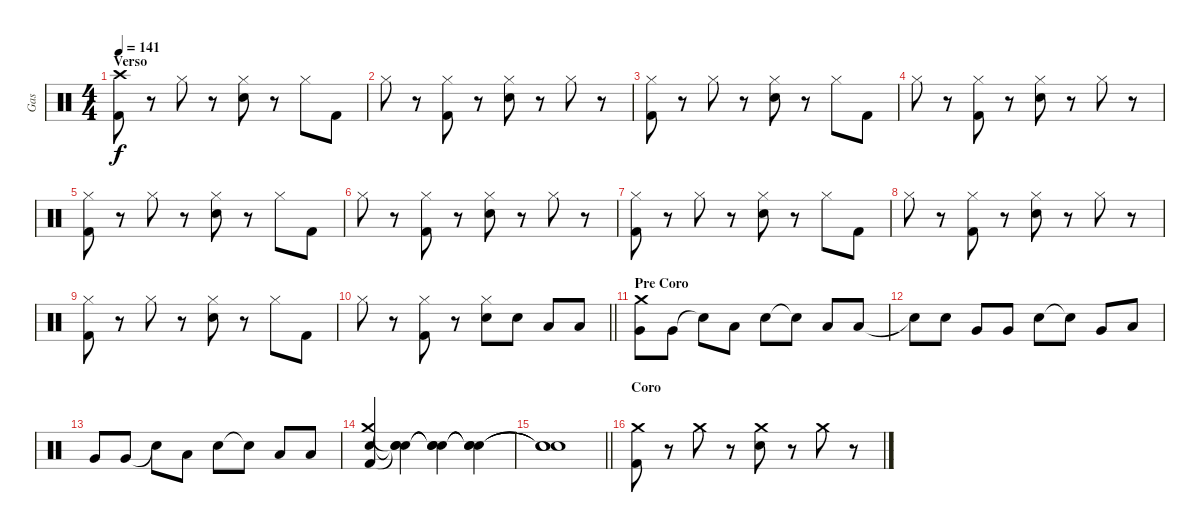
\track ("Gas" "Gas") {instrument percussion}
\staff {score}
\articulation defaults
\ts (4 4)
\section ("" "Verso")
\tempo 141
\clef neutral
\ks c
("Crash high (hit)" "Kick (hit) 2").8{dy f} r.8 "Hi-Hat (closed)".8 r.8 ("Hi-Hat (closed)" "Electric Snare (hit)").8 r.8 "Hi-Hat (closed)".8 "Kick (hit) 2".8 |
"Hi-Hat (closed)".8 r.8 ("Hi-Hat (closed)" "Kick (hit) 2").8 r.8 ("Hi-Hat (closed)" "Electric Snare (hit)").8 r.8 "Hi-Hat (closed)".8 r.8 |
("Hi-Hat (closed)" "Kick (hit) 2").8 r.8 "Hi-Hat (closed)".8 r.8 ("Hi-Hat (closed)" "Electric Snare (hit)").8 r.8 "Hi-Hat (closed)".8 "Kick (hit) 2".8 |
"Hi-Hat (closed)".8 r.8 ("Hi-Hat (closed)" "Kick (hit) 2").8 r.8 ("Hi-Hat (closed)" "Electric Snare (hit)").8 r.8 "Hi-Hat (closed)".8 r.8 |
("Hi-Hat (closed)" "Kick (hit) 2").8 r.8 "Hi-Hat (closed)".8 r.8 ("Hi-Hat (closed)" "Electric Snare (hit)").8 r.8 "Hi-Hat (closed)".8 "Kick (hit) 2".8 |
"Hi-Hat (closed)".8 r.8 ("Hi-Hat (closed)" "Kick (hit) 2").8 r.8 ("Hi-Hat (closed)" "Electric Snare (hit)").8 r.8 "Hi-Hat (closed)".8 r.8 |
("Hi-Hat (closed)" "Kick (hit) 2").8 r.8 "Hi-Hat (closed)".8 r.8 ("Hi-Hat (closed)" "Electric Snare (hit)").8 r.8 "Hi-Hat (closed)".8 "Kick (hit) 2".8 |
"Hi-Hat (closed)".8 r.8 ("Hi-Hat (closed)" "Kick (hit) 2").8 r.8 ("Hi-Hat (closed)" "Electric Snare (hit)").8 r.8 "Hi-Hat (closed)".8 r.8 |
("Hi-Hat (closed)" "Kick (hit) 2").8 r.8 "Hi-Hat (closed)".8 r.8 ("Hi-Hat (closed)" "Electric Snare (hit)").8 r.8 "Hi-Hat (closed)".8 "Kick (hit) 2".8 |
\barLineRight lightlight "Hi-Hat (closed)".8
r.8 ("Hi-Hat (closed)" "Kick (hit) 2").8 r.8 ("Hi-Hat (closed)" "Electric Snare (hit)").8 "Electric Snare (hit)".8 "Low Tom (hit)".8 "Low Tom (hit)".8 |
\section ("" "Pre Coro")
("Crash medium (hit)" "Very Low Tom (hit)").8 "Very Low Tom (hit)".8 "Snare (hit)"{t}.8 "Low Tom (hit)".8 "Electric Snare (hit)".8 "Snare (hit)"{t}.8 "Low Tom (hit)".8 "Low Tom (hit)".8 |
"Snare (hit)"{t}.8 "Electric Snare (hit)".8 "Very Low Tom (hit)".8 "Very Low Tom (hit)".8 "Electric Snare (hit)".8 "Snare (hit)"{t}.8 "Very Low Tom (hit)".8 "Low Tom (hit)".8 |
"Very Low Tom (hit)".8 "Very Low Tom (hit)".8 "Snare (hit)"{t}.8 "Low Tom (hit)".8 "Electric Snare (hit)".8 "Snare (hit)"{t}.8 "Low Tom (hit)".8 "Low Tom (hit)".8 |
("Kick (hit) 2" "Crash medium (hit)" "Snare (hit)").4 ("Snare (hit)"{t} "Snare (hit)"{t} "Snare (hit)"{t}).4 ("Snare (hit)"{t} "Snare (hit)"{t} "Snare (hit)"{t}).4 ("Snare (hit)"{t} "Snare (hit)"{t} "Snare (hit)"{t}).4 |
\barLineRight lightlight
("Snare (hit)"{t} "Snare (hit)"{t} "Snare (hit)"{t}).1 |
\section ("" "Coro")
("Crash medium (hit)" "Kick (hit) 2").8 r.8 "Crash medium (hit)".8 r.8 ("Crash medium (hit)" "Electric Snare (hit)").8 r.8 "Crash medium (hit)".8 r.8
